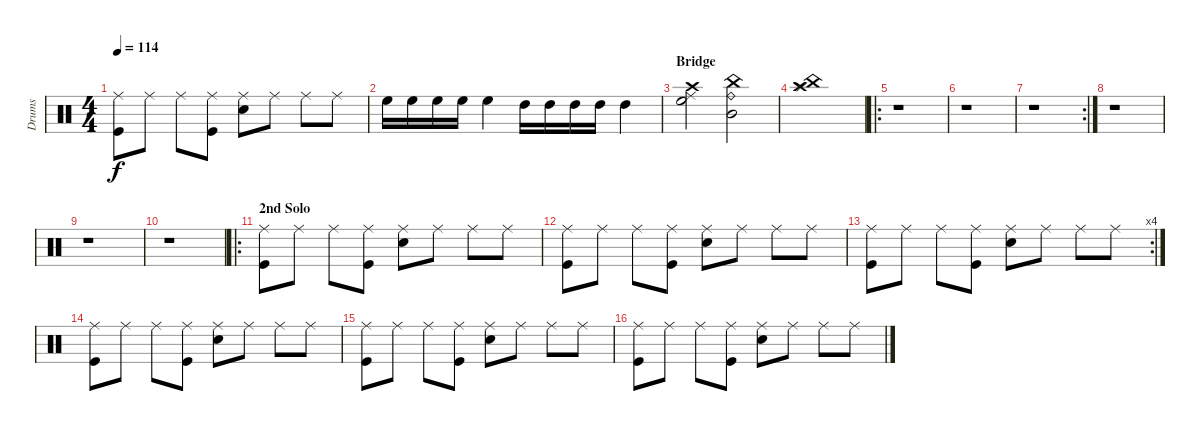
\track ("Drums" "Drums") {instrument percussion}
\staff {score}
\articulation defaults
\ts (4 4)
\tempo 114
\clef neutral
\ks c
("Ride (middle)" "Kick (hit)").8{dy f} "Ride (middle)".8 "Ride (middle)".8 ("Ride (middle)" "Kick (hit)").8 ("Ride (middle)" "Snare (hit) 2").8 "Ride (middle)".8 "Ride (middle)".8 "Ride (middle)".8 |
"High Floor Tom (hit)".16 "High Floor Tom (hit)".16 "High Floor Tom (hit)".16 "High Floor Tom (hit)".16 "High Floor Tom (hit)".4 "High Tom (hit)".16 "High Tom (hit)".16 "High Tom (hit)".16 "High Tom (hit)".16 "High Tom (hit)".4 |
\section ("" "Bridge")
("Crash high (hit)" "High Floor Tom (hit)" "Ride (middle)").2 ("Mid Tom (hit)" "China (hit)" "Ride (bell)").2 |
("Crash high (hit)" "China (hit)" "Splash (hit)").1 |
\ro
r.1 |
r.1 |
\rc 2
r.1 |
r.1 |
r.1 |
r.1 |
\ro
\section ("" "2nd Solo")
("Ride (middle)" "Kick (hit)").8 "Ride (middle)".8 "Ride (middle)".8 ("Ride (middle)" "Kick (hit)").8 ("Ride (middle)" "Snare (hit) 2").8 "Ride (middle)".8 "Ride (middle)".8 "Ride (middle)".8 |
("Ride (middle)" "Kick (hit)").8 "Ride (middle)".8 "Ride (middle)".8 ("Ride (middle)" "Kick (hit)").8 ("Ride (middle)" "Snare (hit) 2").8 "Ride (middle)".8 "Ride (middle)".8 "Ride (middle)".8 |
\rc 4
("Ride (middle)" "Kick (hit)").8 "Ride (middle)".8 "Ride (middle)".8 ("Ride (middle)" "Kick (hit)").8 ("Ride (middle)" "Snare (hit) 2").8 "Ride (middle)".8 "Ride (middle)".8 "Ride (middle)".8 |
("Ride (middle)" "Kick (hit)").8 "Ride (middle)".8 "Ride (middle)".8 ("Ride (middle)" "Kick (hit)").8 ("Ride (middle)" "Snare (hit) 2").8 "Ride (middle)".8 "Ride (middle)".8 "Ride (middle)".8 |
("Ride (middle)" "Kick (hit)").8 "Ride (middle)".8 "Ride (middle)".8 ("Ride (middle)" "Kick (hit)").8 ("Ride (middle)" "Snare (hit) 2").8 "Ride (middle)".8 "Ride (middle)".8 "Ride (middle)".8 |
("Ride (middle)" "Kick (hit)").8 "Ride (middle)".8 "Ride (middle)".8 ("Ride (middle)" "Kick (hit)").8 ("Ride (middle)" "Snare (hit) 2").8 "Ride (middle)".8 "Ride (middle)".8 "Ride (middle)".8
